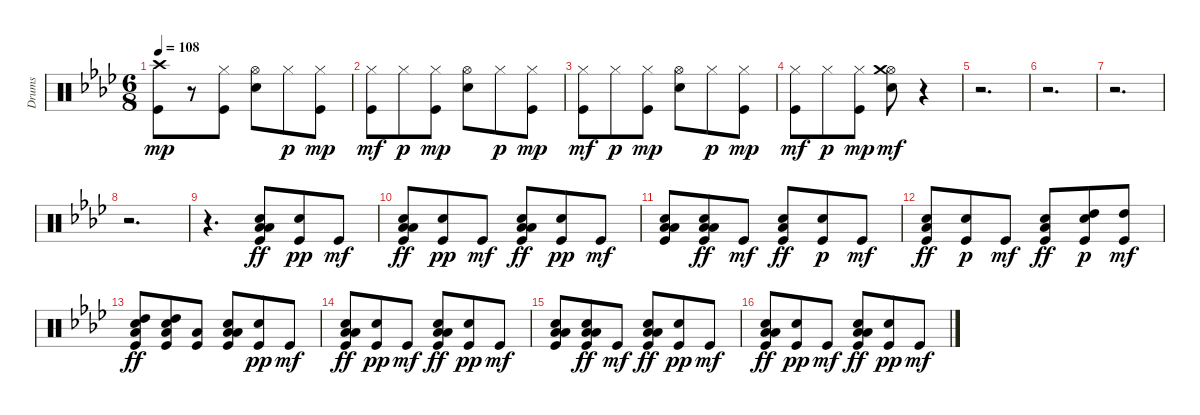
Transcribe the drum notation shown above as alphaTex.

\track ("Drums" "Drums") {instrument percussion}
\staff {score}
\articulation defaults
\ts (6 8)
\tempo 108
\clef neutral
\ks ab
("Kick (hit)" "Crash high (hit)").8{dy mp} r.8 ("Kick (hit)" "Hi-Hat (closed)").8 ("Electric Snare (hit)" "Hi-Hat (open)").8 "Hi-Hat (closed)".8{dy p} ("Kick (hit)" "Hi-Hat (closed)").8{dy mp} |
("Kick (hit)" "Hi-Hat (closed)").8{dy mf} "Hi-Hat (closed)".8{dy p} ("Kick (hit)" "Hi-Hat (closed)").8{dy mp} ("Electric Snare (hit)" "Hi-Hat (open)").8 "Hi-Hat (closed)".8{dy p} ("Kick (hit)" "Hi-Hat (closed)").8{dy mp} |
("Kick (hit)" "Hi-Hat (closed)").8{dy mf} "Hi-Hat (closed)".8{dy p} ("Kick (hit)" "Hi-Hat (closed)").8{dy mp} ("Electric Snare (hit)" "Hi-Hat (open)").8 "Hi-Hat (closed)".8{dy p} ("Kick (hit)" "Hi-Hat (closed)").8{dy mp} |
("Kick (hit)" "Hi-Hat (closed)").8{dy mf} "Hi-Hat (closed)".8{dy p} ("Kick (hit)" "Hi-Hat (closed)").8{dy mp} ("Electric Snare (hit)" "Hi-Hat (open)" "Crash medium (hit)").8{dy mf} r.4 |
r.2{d} |
r.2{d} |
r.2{d} |
r.2{d} |
r.4{d} ("Kick (hit)" "Hand Clap (hit)" "Low Floor Tom (hit)" "Low Tom (hit)").8{dy ff} ("Kick (hit)" "Hand Clap (hit)").8{dy pp} "Kick (hit)".8{dy mf} |
("Kick (hit)" "Hand Clap (hit)" "Low Floor Tom (hit)" "Low Tom (hit)").8{dy ff} ("Kick (hit)" "Hand Clap (hit)").8{dy pp} "Kick (hit)".8{dy mf} ("Kick (hit)" "Hand Clap (hit)" "Low Floor Tom (hit)" "Low Tom (hit)").8{dy ff} ("Kick (hit)" "Hand Clap (hit)").8{dy pp} "Kick (hit)".8{dy mf} |
("Kick (hit)" "Hand Clap (hit)" "Low Floor Tom (hit)" "Low Tom (hit)").8 ("Kick (hit)" "Hand Clap (hit)" "Low Floor Tom (hit)" "Low Tom (hit)").8{dy ff} "Kick (hit)".8{dy mf} ("Kick (hit)" "Hand Clap (hit)" "Low Floor Tom (hit)").8{dy ff} ("Kick (hit)" "Hand Clap (hit)").8{dy p} "Kick (hit)".8{dy mf} |
("Kick (hit)" "Hand Clap (hit)" "Low Tom (hit)").8{dy ff} ("Kick (hit)" "Hand Clap (hit)").8{dy p} "Kick (hit)".8{dy mf} ("Kick (hit)" "Hand Clap (hit)" "Low Floor Tom (hit)").8{dy ff} ("Kick (hit)" "Hand Clap (hit)" "High Tom (hit)").8{dy p} ("Kick (hit)" "High Tom (hit)").8{dy mf} |
("Kick (hit)" "Hand Clap (hit)" "Low Tom (hit)" "High Tom (hit)").8{dy ff} ("Kick (hit)" "Hand Clap (hit)" "Low Tom (hit)" "High Tom (hit)").8 ("Kick (hit)" "Low Floor Tom (hit)").8 ("Kick (hit)" "Hand Clap (hit)" "Low Floor Tom (hit)" "Low Tom (hit)").8 ("Kick (hit)" "Hand Clap (hit)").8{dy pp} "Kick (hit)".8{dy mf} |
("Kick (hit)" "Hand Clap (hit)" "Low Floor Tom (hit)" "Low Tom (hit)").8{dy ff} ("Kick (hit)" "Hand Clap (hit)").8{dy pp} "Kick (hit)".8{dy mf} ("Kick (hit)" "Hand Clap (hit)" "Low Floor Tom (hit)" "Low Tom (hit)").8{dy ff} ("Kick (hit)" "Hand Clap (hit)").8{dy pp} "Kick (hit)".8{dy mf} |
("Kick (hit)" "Hand Clap (hit)" "Low Floor Tom (hit)" "Low Tom (hit)").8 ("Kick (hit)" "Hand Clap (hit)" "Low Floor Tom (hit)" "Low Tom (hit)").8{dy ff} "Kick (hit)".8{dy mf} ("Kick (hit)" "Hand Clap (hit)" "Low Floor Tom (hit)" "Low Tom (hit)").8{dy ff} ("Kick (hit)" "Hand Clap (hit)").8{dy pp} "Kick (hit)".8{dy mf} |
("Kick (hit)" "Hand Clap (hit)" "Low Floor Tom (hit)" "Low Tom (hit)").8{dy ff} ("Kick (hit)" "Hand Clap (hit)").8{dy pp} "Kick (hit)".8{dy mf} ("Kick (hit)" "Hand Clap (hit)" "Low Floor Tom (hit)" "Low Tom (hit)").8{dy ff} ("Kick (hit)" "Hand Clap (hit)").8{dy pp} "Kick (hit)".8{dy mf}
